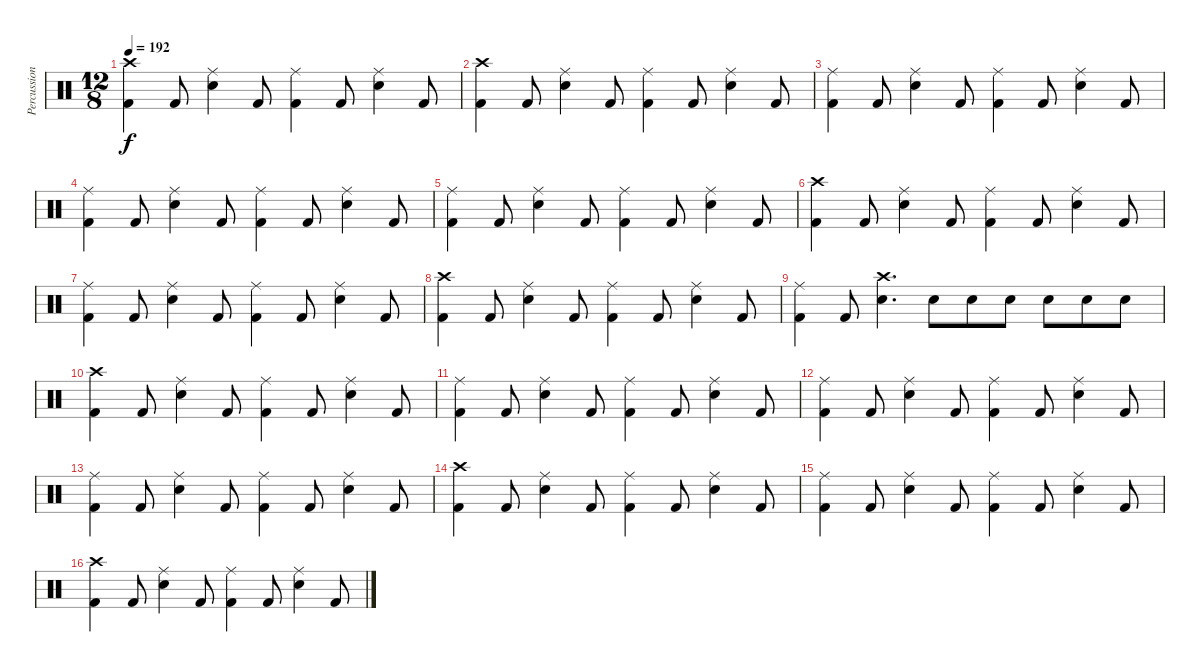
\track ("Percussion" "Percussion") {instrument percussion}
\staff {score}
\articulation defaults
\ts (12 8)
\tempo 192
\clef neutral
\ks c
("Kick (hit) 2" "Crash high (hit)").4{dy f} "Kick (hit) 2".8 ("Snare (hit) 2" "Ride (middle)").4 "Kick (hit) 2".8 ("Kick (hit) 2" "Ride (middle)").4 "Kick (hit) 2".8 ("Snare (hit) 2" "Ride (middle)").4 "Kick (hit) 2".8 |
("Kick (hit) 2" "Crash high (hit)").4 "Kick (hit) 2".8 ("Snare (hit) 2" "Ride (middle)").4 "Kick (hit) 2".8 ("Kick (hit) 2" "Ride (middle)").4 "Kick (hit) 2".8 ("Snare (hit) 2" "Ride (middle)").4 "Kick (hit) 2".8 |
("Kick (hit) 2" "Ride (middle)").4 "Kick (hit) 2".8 ("Snare (hit) 2" "Ride (middle)").4 "Kick (hit) 2".8 ("Kick (hit) 2" "Ride (middle)").4 "Kick (hit) 2".8 ("Snare (hit) 2" "Ride (middle)").4 "Kick (hit) 2".8 |
("Kick (hit) 2" "Ride (middle)").4 "Kick (hit) 2".8 ("Snare (hit) 2" "Ride (middle)").4 "Kick (hit) 2".8 ("Kick (hit) 2" "Ride (middle)").4 "Kick (hit) 2".8 ("Snare (hit) 2" "Ride (middle)").4 "Kick (hit) 2".8 |
("Kick (hit) 2" "Ride (middle)").4 "Kick (hit) 2".8 ("Snare (hit) 2" "Ride (middle)").4 "Kick (hit) 2".8 ("Kick (hit) 2" "Ride (middle)").4 "Kick (hit) 2".8 ("Snare (hit) 2" "Ride (middle)").4 "Kick (hit) 2".8 |
("Kick (hit) 2" "Crash high (hit)").4 "Kick (hit) 2".8 ("Snare (hit) 2" "Ride (middle)").4 "Kick (hit) 2".8 ("Kick (hit) 2" "Ride (middle)").4 "Kick (hit) 2".8 ("Snare (hit) 2" "Ride (middle)").4 "Kick (hit) 2".8 |
("Kick (hit) 2" "Ride (middle)").4 "Kick (hit) 2".8 ("Snare (hit) 2" "Ride (middle)").4 "Kick (hit) 2".8 ("Kick (hit) 2" "Ride (middle)").4 "Kick (hit) 2".8 ("Snare (hit) 2" "Ride (middle)").4 "Kick (hit) 2".8 |
("Kick (hit) 2" "Crash high (hit)").4 "Kick (hit) 2".8 ("Snare (hit) 2" "Ride (middle)").4 "Kick (hit) 2".8 ("Kick (hit) 2" "Ride (middle)").4 "Kick (hit) 2".8 ("Snare (hit) 2" "Ride (middle)").4 "Kick (hit) 2".8 |
("Kick (hit) 2" "Ride (middle)").4 "Kick (hit) 2".8 ("Snare (hit) 2" "Crash high (hit)").4{d} "Snare (hit) 2".8 "Snare (hit) 2".8 "Snare (hit) 2".8 "Snare (hit) 2".8 "Snare (hit) 2".8 "Snare (hit) 2".8 |
("Kick (hit) 2" "Crash high (hit)").4 "Kick (hit) 2".8 ("Snare (hit) 2" "Ride (middle)").4 "Kick (hit) 2".8 ("Kick (hit) 2" "Ride (middle)").4 "Kick (hit) 2".8 ("Snare (hit) 2" "Ride (middle)").4 "Kick (hit) 2".8 |
("Kick (hit) 2" "Ride (middle)").4 "Kick (hit) 2".8 ("Snare (hit) 2" "Ride (middle)").4 "Kick (hit) 2".8 ("Kick (hit) 2" "Ride (middle)").4 "Kick (hit) 2".8 ("Snare (hit) 2" "Ride (middle)").4 "Kick (hit) 2".8 |
("Kick (hit) 2" "Ride (middle)").4 "Kick (hit) 2".8 ("Snare (hit) 2" "Ride (middle)").4 "Kick (hit) 2".8 ("Kick (hit) 2" "Ride (middle)").4 "Kick (hit) 2".8 ("Snare (hit) 2" "Ride (middle)").4 "Kick (hit) 2".8 |
("Kick (hit) 2" "Ride (middle)").4 "Kick (hit) 2".8 ("Snare (hit) 2" "Ride (middle)").4 "Kick (hit) 2".8 ("Kick (hit) 2" "Ride (middle)").4 "Kick (hit) 2".8 ("Snare (hit) 2" "Ride (middle)").4 "Kick (hit) 2".8 |
("Kick (hit) 2" "Crash high (hit)").4 "Kick (hit) 2".8 ("Snare (hit) 2" "Ride (middle)").4 "Kick (hit) 2".8 ("Kick (hit) 2" "Ride (middle)").4 "Kick (hit) 2".8 ("Snare (hit) 2" "Ride (middle)").4 "Kick (hit) 2".8 |
("Kick (hit) 2" "Ride (middle)").4 "Kick (hit) 2".8 ("Snare (hit) 2" "Ride (middle)").4 "Kick (hit) 2".8 ("Kick (hit) 2" "Ride (middle)").4 "Kick (hit) 2".8 ("Snare (hit) 2" "Ride (middle)").4 "Kick (hit) 2".8 |
("Kick (hit) 2" "Crash high (hit)").4 "Kick (hit) 2".8 ("Snare (hit) 2" "Ride (middle)").4 "Kick (hit) 2".8 ("Kick (hit) 2" "Ride (middle)").4 "Kick (hit) 2".8 ("Snare (hit) 2" "Ride (middle)").4 "Kick (hit) 2".8
